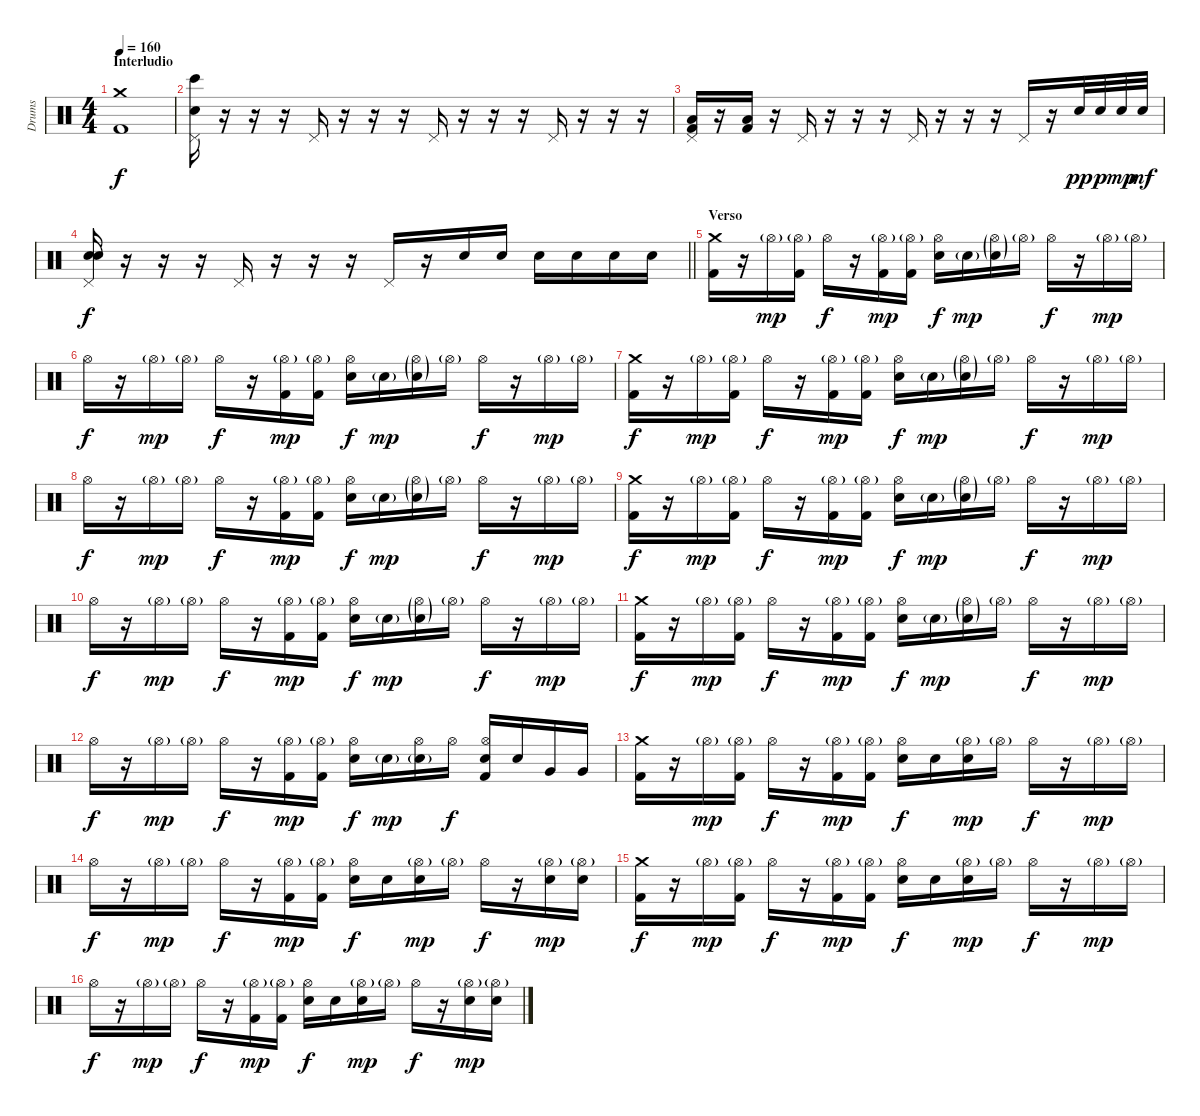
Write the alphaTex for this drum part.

\track ("Drums" "Drums") {instrument percussion}
\staff {score}
\articulation defaults
\ts (4 4)
\section ("" "Interludio")
\tempo 160
\clef neutral
\ks c
("Crash medium (hit)" "Kick (hit) 2").1{dy f} |
("Pedal Hi-Hat (hit)" "Hand Clap (hit)" "Bongo High (hit)").16 r.16 r.16 r.16 "Pedal Hi-Hat (hit)".16 r.16 r.16 r.16 "Pedal Hi-Hat (hit)".16 r.16 r.16 r.16 "Pedal Hi-Hat (hit)".16 r.16 r.16 r.16 |
("Pedal Hi-Hat (hit)" "Low Floor Tom (hit)" "Kick (hit) 2").16 r.16 ("Low Floor Tom (hit)" "Kick (hit) 2").16 r.16 "Pedal Hi-Hat (hit)".16 r.16 r.16 r.16 "Pedal Hi-Hat (hit)".16 r.16 r.16 r.16 "Pedal Hi-Hat (hit)".16 r.16 "Snare (hit) 2".32{dy pp} "Snare (hit) 2".32{dy p} "Snare (hit) 2".32{dy mp} "Snare (hit) 2".32{dy mf} |
\barLineRight lightlight
("Pedal Hi-Hat (hit)" "Hand Clap (hit)" "Snare (hit) 2").16{dy f} r.16 r.16 r.16 "Pedal Hi-Hat (hit)".16 r.16 r.16 r.16 "Pedal Hi-Hat (hit)".16 r.16 "Snare (hit) 2".16 "Snare (hit) 2".16 "Snare (hit) 2".16 "Snare (hit) 2".16 "Snare (hit) 2".16 "Snare (hit) 2".16 |
\section ("" "Verso ")
("Crash medium (hit)" "Kick (hit) 2").16{volume 16} r.16 "Hi-Hat (open)"{g}.16{dy mp} ("Hi-Hat (open)"{g} "Kick (hit) 2").16 "Hi-Hat (open)".16{dy f} r.16 ("Hi-Hat (open)"{g} "Kick (hit) 2").16{dy mp} ("Hi-Hat (open)"{g} "Kick (hit) 2").16 ("Hi-Hat (open)" "Electric Snare (hit)").16{dy f} "Electric Snare (hit)"{g}.16{dy mp} ("Hi-Hat (open)"{g} "Electric Snare (hit)"{g}).16 "Hi-Hat (open)"{g}.16 "Hi-Hat (open)".16{dy f} r.16 "Hi-Hat (open)"{g}.16{dy mp} "Hi-Hat (open)"{g}.16 |
"Hi-Hat (open)".16{dy f} r.16 "Hi-Hat (open)"{g}.16{dy mp} "Hi-Hat (open)"{g}.16 "Hi-Hat (open)".16{dy f} r.16 ("Hi-Hat (open)"{g} "Kick (hit) 2").16{dy mp} ("Hi-Hat (open)"{g} "Kick (hit) 2").16 ("Hi-Hat (open)" "Electric Snare (hit)").16{dy f} "Electric Snare (hit)"{g}.16{dy mp} ("Hi-Hat (open)"{g} "Electric Snare (hit)"{g}).16 "Hi-Hat (open)"{g}.16 "Hi-Hat (open)".16{dy f} r.16 "Hi-Hat (open)"{g}.16{dy mp} "Hi-Hat (open)"{g}.16 |
("Crash medium (hit)" "Kick (hit) 2").16{dy f} r.16 "Hi-Hat (open)"{g}.16{dy mp} ("Hi-Hat (open)"{g} "Kick (hit) 2").16 "Hi-Hat (open)".16{dy f} r.16 ("Hi-Hat (open)"{g} "Kick (hit) 2").16{dy mp} ("Hi-Hat (open)"{g} "Kick (hit) 2").16 ("Hi-Hat (open)" "Electric Snare (hit)").16{dy f} "Electric Snare (hit)"{g}.16{dy mp} ("Hi-Hat (open)"{g} "Electric Snare (hit)"{g}).16 "Hi-Hat (open)"{g}.16 "Hi-Hat (open)".16{dy f} r.16 "Hi-Hat (open)"{g}.16{dy mp} "Hi-Hat (open)"{g}.16 |
"Hi-Hat (open)".16{dy f} r.16 "Hi-Hat (open)"{g}.16{dy mp} "Hi-Hat (open)"{g}.16 "Hi-Hat (open)".16{dy f} r.16 ("Hi-Hat (open)"{g} "Kick (hit) 2").16{dy mp} ("Hi-Hat (open)"{g} "Kick (hit) 2").16 ("Hi-Hat (open)" "Electric Snare (hit)").16{dy f} "Electric Snare (hit)"{g}.16{dy mp} ("Hi-Hat (open)"{g} "Electric Snare (hit)"{g}).16 "Hi-Hat (open)"{g}.16 "Hi-Hat (open)".16{dy f} r.16 "Hi-Hat (open)"{g}.16{dy mp} "Hi-Hat (open)"{g}.16 |
("Crash medium (hit)" "Kick (hit) 2").16{dy f} r.16 "Hi-Hat (open)"{g}.16{dy mp} ("Hi-Hat (open)"{g} "Kick (hit) 2").16 "Hi-Hat (open)".16{dy f} r.16 ("Hi-Hat (open)"{g} "Kick (hit) 2").16{dy mp} ("Hi-Hat (open)"{g} "Kick (hit) 2").16 ("Hi-Hat (open)" "Electric Snare (hit)").16{dy f} "Electric Snare (hit)"{g}.16{dy mp} ("Hi-Hat (open)"{g} "Electric Snare (hit)"{g}).16 "Hi-Hat (open)"{g}.16 "Hi-Hat (open)".16{dy f} r.16 "Hi-Hat (open)"{g}.16{dy mp} "Hi-Hat (open)"{g}.16 |
"Hi-Hat (open)".16{dy f} r.16 "Hi-Hat (open)"{g}.16{dy mp} "Hi-Hat (open)"{g}.16 "Hi-Hat (open)".16{dy f} r.16 ("Hi-Hat (open)"{g} "Kick (hit) 2").16{dy mp} ("Hi-Hat (open)"{g} "Kick (hit) 2").16 ("Hi-Hat (open)" "Electric Snare (hit)").16{dy f} "Electric Snare (hit)"{g}.16{dy mp} ("Hi-Hat (open)"{g} "Electric Snare (hit)"{g}).16 "Hi-Hat (open)"{g}.16 "Hi-Hat (open)".16{dy f} r.16 "Hi-Hat (open)"{g}.16{dy mp} "Hi-Hat (open)"{g}.16 |
("Crash medium (hit)" "Kick (hit) 2").16{dy f} r.16 "Hi-Hat (open)"{g}.16{dy mp} ("Hi-Hat (open)"{g} "Kick (hit) 2").16 "Hi-Hat (open)".16{dy f} r.16 ("Hi-Hat (open)"{g} "Kick (hit) 2").16{dy mp} ("Hi-Hat (open)"{g} "Kick (hit) 2").16 ("Hi-Hat (open)" "Electric Snare (hit)").16{dy f} "Electric Snare (hit)"{g}.16{dy mp} ("Hi-Hat (open)"{g} "Electric Snare (hit)"{g}).16 "Hi-Hat (open)"{g}.16 "Hi-Hat (open)".16{dy f} r.16 "Hi-Hat (open)"{g}.16{dy mp} "Hi-Hat (open)"{g}.16 |
"Hi-Hat (open)".16{dy f} r.16 "Hi-Hat (open)"{g}.16{dy mp} "Hi-Hat (open)"{g}.16 "Hi-Hat (open)".16{dy f} r.16 ("Hi-Hat (open)"{g} "Kick (hit) 2").16{dy mp} ("Hi-Hat (open)"{g} "Kick (hit) 2").16 ("Hi-Hat (open)" "Electric Snare (hit)").16{dy f} "Electric Snare (hit)"{g}.16{dy mp} ("Hi-Hat (open)" "Electric Snare (hit)"{g}).16 "Hi-Hat (open)".16{dy f} ("Hi-Hat (open)" "Electric Snare (hit)" "Kick (hit) 2").16 "Electric Snare (hit)".16 "Very Low Tom (hit)".16 "Very Low Tom (hit)".16 |
("Crash medium (hit)" "Kick (hit) 2").16 r.16 "Hi-Hat (open)"{g}.16{dy mp} ("Hi-Hat (open)"{g} "Kick (hit) 2").16 "Hi-Hat (open)".16{dy f} r.16 ("Hi-Hat (open)"{g} "Kick (hit) 2").16{dy mp} ("Hi-Hat (open)"{g} "Kick (hit) 2").16 ("Hi-Hat (open)" "Electric Snare (hit)").16{dy f} "Electric Snare (hit)".16 ("Hi-Hat (open)"{g} "Electric Snare (hit)").16{dy mp} "Hi-Hat (open)"{g}.16 "Hi-Hat (open)".16{dy f} r.16 "Hi-Hat (open)"{g}.16{dy mp} "Hi-Hat (open)"{g}.16 |
"Hi-Hat (open)".16{dy f} r.16 "Hi-Hat (open)"{g}.16{dy mp} "Hi-Hat (open)"{g}.16 "Hi-Hat (open)".16{dy f} r.16 ("Hi-Hat (open)"{g} "Kick (hit) 2").16{dy mp} ("Hi-Hat (open)"{g} "Kick (hit) 2").16 ("Hi-Hat (open)" "Electric Snare (hit)").16{dy f} "Electric Snare (hit)".16 ("Hi-Hat (open)"{g} "Electric Snare (hit)").16{dy mp} "Hi-Hat (open)"{g}.16 "Hi-Hat (open)".16{dy f} r.16 ("Hi-Hat (open)"{g} "Electric Snare (hit)").16{dy mp} ("Hi-Hat (open)"{g} "Electric Snare (hit)").16 |
("Crash medium (hit)" "Kick (hit) 2").16{dy f} r.16 "Hi-Hat (open)"{g}.16{dy mp} ("Hi-Hat (open)"{g} "Kick (hit) 2").16 "Hi-Hat (open)".16{dy f} r.16 ("Hi-Hat (open)"{g} "Kick (hit) 2").16{dy mp} ("Hi-Hat (open)"{g} "Kick (hit) 2").16 ("Hi-Hat (open)" "Electric Snare (hit)").16{dy f} "Electric Snare (hit)".16 ("Hi-Hat (open)"{g} "Electric Snare (hit)").16{dy mp} "Hi-Hat (open)"{g}.16 "Hi-Hat (open)".16{dy f} r.16 "Hi-Hat (open)"{g}.16{dy mp} "Hi-Hat (open)"{g}.16 |
"Hi-Hat (open)".16{dy f} r.16 "Hi-Hat (open)"{g}.16{dy mp} "Hi-Hat (open)"{g}.16 "Hi-Hat (open)".16{dy f} r.16 ("Hi-Hat (open)"{g} "Kick (hit) 2").16{dy mp} ("Hi-Hat (open)"{g} "Kick (hit) 2").16 ("Hi-Hat (open)" "Electric Snare (hit)").16{dy f} "Electric Snare (hit)".16 ("Hi-Hat (open)"{g} "Electric Snare (hit)").16{dy mp} "Hi-Hat (open)"{g}.16 "Hi-Hat (open)".16{dy f} r.16 ("Hi-Hat (open)"{g} "Electric Snare (hit)").16{dy mp} ("Hi-Hat (open)"{g} "Electric Snare (hit)").16
